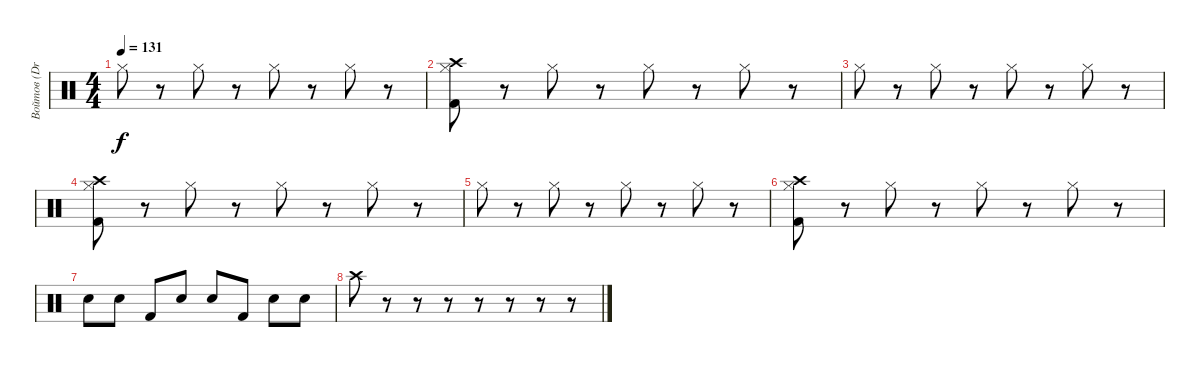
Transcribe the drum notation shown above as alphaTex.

\track ("Войтов (Drums)" "Войтов (Dr") {instrument percussion}
\staff {score}
\articulation defaults
\ts (4 4)
\tempo 131
\clef neutral
\ks c "Hi-Hat (closed)".8{dy f}
r.8 "Hi-Hat (closed)".8 r.8 "Hi-Hat (closed)".8 r.8 "Hi-Hat (closed)".8 r.8 |
("Kick (hit) 2" "Crash high (hit)" "Hi-Hat (closed)").8 r.8 "Hi-Hat (closed)".8 r.8 "Hi-Hat (closed)".8 r.8 "Hi-Hat (closed)".8 r.8 |
"Hi-Hat (closed)".8 r.8 "Hi-Hat (closed)".8 r.8 "Hi-Hat (closed)".8 r.8 "Hi-Hat (closed)".8 r.8 |
("Kick (hit) 2" "Crash high (hit)" "Hi-Hat (closed)").8 r.8 "Hi-Hat (closed)".8 r.8 "Hi-Hat (closed)".8 r.8 "Hi-Hat (closed)".8 r.8 |
"Hi-Hat (closed)".8 r.8 "Hi-Hat (closed)".8 r.8 "Hi-Hat (closed)".8 r.8 "Hi-Hat (closed)".8 r.8 |
("Kick (hit) 2" "Crash high (hit)" "Hi-Hat (closed)").8 r.8 "Hi-Hat (closed)".8 r.8 "Hi-Hat (closed)".8 r.8 "Hi-Hat (closed)".8 r.8 |
"Electric Snare (hit)".8 "Electric Snare (hit)".8 "Kick (hit) 2".8 "Electric Snare (hit)".8 "Electric Snare (hit)".8 "Kick (hit) 2".8 "Electric Snare (hit)".8 "Electric Snare (hit)".8 |
"Crash high (hit)".8 r.8 r.8 r.8 r.8 r.8 r.8 r.8
